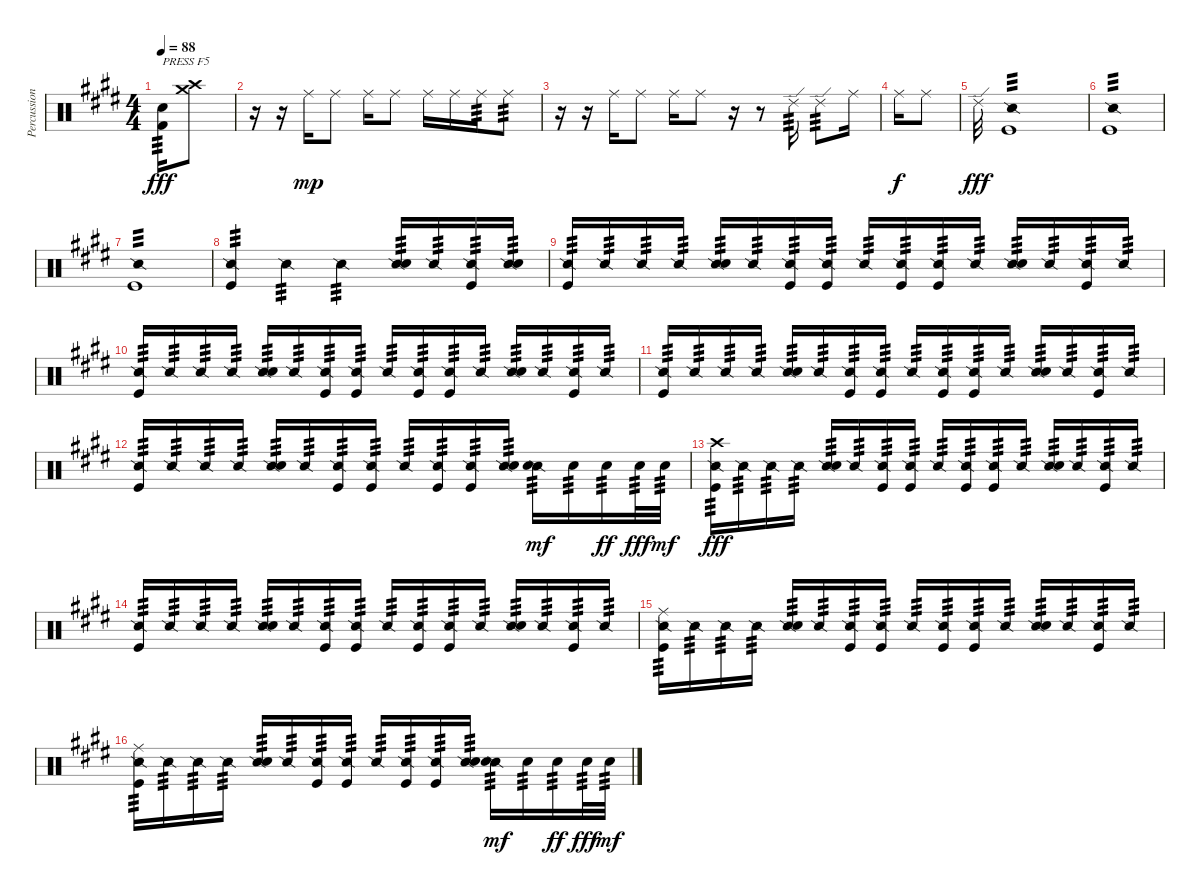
\track ("Percussion" "Percussion") {instrument percussion}
\staff {score}
\articulation defaults
\ts (4 4)
\tempo 88
\clef neutral
\ks e
("Snare (hit) 2" "Kick (hit) 2").16{txt "PRESS F5" tp 3 dy fff} ("Crash high (hit)" "Crash medium (hit)").8 |
\ks c#minor
r.16 r.16 "Ride (middle)".16{dy mp} "Ride (middle)".8 "Ride (middle)".16 "Ride (middle)".8 "Ride (middle)".16 "Ride (middle)".16 "Ride (middle)".16{tp 3} "Ride (middle)".8{tp 3} |
r.16 r.16 "Ride (middle)".16 "Ride (middle)".8 "Ride (middle)".16 "Ride (middle)".8 r.16 r.8 "Ride (edge) 2".16{tp 3} "Ride (edge) 2".8{tp 3} "Ride (middle)".16 |
\ks e "Ride (middle)".16{dy f} "Ride (middle)".8
|
\ks c#minor "Ride (edge) 2".32{dy fff}
("Snare (side stick) 2" "Kick (hit)").1{tp 3} |
("Snare (side stick) 2" "Kick (hit)").1{tp 3} |
\ks e
("Snare (side stick) 2" "Kick (hit)").1{tp 3} |
\ks c#minor
("Snare (side stick) 2" "Kick (hit)").4{tp 3} "Snare (side stick) 2".4{tp 3} "Snare (side stick) 2".4{tp 3} ("Snare (side stick) 2" "Electric Snare (hit)").16{tp 3} "Snare (side stick) 2".16{tp 3} ("Snare (side stick) 2" "Kick (hit)").16{tp 3} ("Snare (side stick) 2" "Electric Snare (hit)").16{tp 3} |
("Snare (side stick) 2" "Kick (hit)").16{tp 3} "Snare (side stick) 2".16{tp 3} "Snare (side stick) 2".16{tp 3} "Snare (side stick) 2".16{tp 3} ("Snare (side stick) 2" "Electric Snare (hit)").16{tp 3} "Snare (side stick) 2".16{tp 3} ("Snare (side stick) 2" "Kick (hit)").16{tp 3} ("Snare (side stick) 2" "Kick (hit)").16{tp 3} "Snare (side stick) 2".16{tp 3} ("Snare (side stick) 2" "Kick (hit)").16{tp 3} ("Snare (side stick) 2" "Kick (hit)").16{tp 3} "Snare (side stick) 2".16{tp 3} ("Snare (side stick) 2" "Electric Snare (hit)").16{tp 3} "Snare (side stick) 2".16{tp 3} ("Snare (side stick) 2" "Kick (hit)").16{tp 3} "Snare (side stick) 2".16{tp 3} |
\ks e
("Snare (side stick) 2" "Kick (hit)").16{tp 3} "Snare (side stick) 2".16{tp 3} "Snare (side stick) 2".16{tp 3} "Snare (side stick) 2".16{tp 3} ("Snare (side stick) 2" "Electric Snare (hit)").16{tp 3} "Snare (side stick) 2".16{tp 3} ("Snare (side stick) 2" "Kick (hit)").16{tp 3} ("Snare (side stick) 2" "Kick (hit)").16{tp 3} "Snare (side stick) 2".16{tp 3} ("Snare (side stick) 2" "Kick (hit)").16{tp 3} ("Snare (side stick) 2" "Kick (hit)").16{tp 3} "Snare (side stick) 2".16{tp 3} ("Snare (side stick) 2" "Electric Snare (hit)").16{tp 3} "Snare (side stick) 2".16{tp 3} ("Snare (side stick) 2" "Kick (hit)").16{tp 3} "Snare (side stick) 2".16{tp 3} |
\ks c#minor
("Snare (side stick) 2" "Kick (hit)").16{tp 3} "Snare (side stick) 2".16{tp 3} "Snare (side stick) 2".16{tp 3} "Snare (side stick) 2".16{tp 3} ("Snare (side stick) 2" "Electric Snare (hit)").16{tp 3} "Snare (side stick) 2".16{tp 3} ("Snare (side stick) 2" "Kick (hit)").16{tp 3} ("Snare (side stick) 2" "Kick (hit)").16{tp 3} "Snare (side stick) 2".16{tp 3} ("Snare (side stick) 2" "Kick (hit)").16{tp 3} ("Snare (side stick) 2" "Kick (hit)").16{tp 3} "Snare (side stick) 2".16{tp 3} ("Snare (side stick) 2" "Electric Snare (hit)").16{tp 3} "Snare (side stick) 2".16{tp 3} ("Snare (side stick) 2" "Kick (hit)").16{tp 3} "Snare (side stick) 2".16{tp 3} |
("Snare (side stick) 2" "Kick (hit)").16{tp 3} "Snare (side stick) 2".16{tp 3} "Snare (side stick) 2".16{tp 3} "Snare (side stick) 2".16{tp 3} ("Snare (side stick) 2" "Electric Snare (hit)").16{tp 3} "Snare (side stick) 2".16{tp 3} ("Snare (side stick) 2" "Kick (hit)").16{tp 3} ("Snare (side stick) 2" "Kick (hit)").16{tp 3} "Snare (side stick) 2".16{tp 3} ("Snare (side stick) 2" "Kick (hit)").16{tp 3} ("Snare (side stick) 2" "Kick (hit)").16{tp 3} ("Snare (side stick) 2" "Electric Snare (hit)").16{tp 3} ("Snare (side stick) 2" "Electric Snare (hit)").16{tp 3 dy mf} "Electric Snare (hit)".16{tp 3} "Electric Snare (hit)".16{tp 3 dy ff} "Electric Snare (hit)".32{tp 3 dy fff} "Electric Snare (hit)".32{tp 3 dy mf} |
\ks e
("Crash high (hit)" "Snare (side stick) 2" "Kick (hit)").16{tp 3 dy fff} "Snare (side stick) 2".16{tp 3} "Snare (side stick) 2".16{tp 3} "Snare (side stick) 2".16{tp 3} ("Snare (side stick) 2" "Electric Snare (hit)").16{tp 3} "Snare (side stick) 2".16{tp 3} ("Snare (side stick) 2" "Kick (hit)").16{tp 3} ("Snare (side stick) 2" "Kick (hit)").16{tp 3} "Snare (side stick) 2".16{tp 3} ("Snare (side stick) 2" "Kick (hit)").16{tp 3} ("Snare (side stick) 2" "Kick (hit)").16{tp 3} "Snare (side stick) 2".16{tp 3} ("Snare (side stick) 2" "Electric Snare (hit)").16{tp 3} "Snare (side stick) 2".16{tp 3} ("Snare (side stick) 2" "Kick (hit)").16{tp 3} "Snare (side stick) 2".16{tp 3} |
\ks c#minor
("Snare (side stick) 2" "Kick (hit)").16{tp 3} "Snare (side stick) 2".16{tp 3} "Snare (side stick) 2".16{tp 3} "Snare (side stick) 2".16{tp 3} ("Snare (side stick) 2" "Electric Snare (hit)").16{tp 3} "Snare (side stick) 2".16{tp 3} ("Snare (side stick) 2" "Kick (hit)").16{tp 3} ("Snare (side stick) 2" "Kick (hit)").16{tp 3} "Snare (side stick) 2".16{tp 3} ("Snare (side stick) 2" "Kick (hit)").16{tp 3} ("Snare (side stick) 2" "Kick (hit)").16{tp 3} "Snare (side stick) 2".16{tp 3} ("Snare (side stick) 2" "Electric Snare (hit)").16{tp 3} "Snare (side stick) 2".16{tp 3} ("Snare (side stick) 2" "Kick (hit)").16{tp 3} "Snare (side stick) 2".16{tp 3} |
("Ride (middle)" "Snare (side stick) 2" "Kick (hit)").16{tp 3} "Snare (side stick) 2".16{tp 3} "Snare (side stick) 2".16{tp 3} "Snare (side stick) 2".16{tp 3} ("Snare (side stick) 2" "Electric Snare (hit)").16{tp 3} "Snare (side stick) 2".16{tp 3} ("Snare (side stick) 2" "Kick (hit)").16{tp 3} ("Snare (side stick) 2" "Kick (hit)").16{tp 3} "Snare (side stick) 2".16{tp 3} ("Snare (side stick) 2" "Kick (hit)").16{tp 3} ("Snare (side stick) 2" "Kick (hit)").16{tp 3} "Snare (side stick) 2".16{tp 3} ("Snare (side stick) 2" "Electric Snare (hit)").16{tp 3} "Snare (side stick) 2".16{tp 3} ("Snare (side stick) 2" "Kick (hit)").16{tp 3} "Snare (side stick) 2".16{tp 3} |
\ks e
("Ride (middle)" "Snare (side stick) 2" "Kick (hit)").16{tp 3} "Snare (side stick) 2".16{tp 3} "Snare (side stick) 2".16{tp 3} "Snare (side stick) 2".16{tp 3} ("Snare (side stick) 2" "Electric Snare (hit)").16{tp 3} "Snare (side stick) 2".16{tp 3} ("Snare (side stick) 2" "Kick (hit)").16{tp 3} ("Snare (side stick) 2" "Kick (hit)").16{tp 3} "Snare (side stick) 2".16{tp 3} ("Snare (side stick) 2" "Kick (hit)").16{tp 3} ("Snare (side stick) 2" "Kick (hit)").16{tp 3} ("Snare (side stick) 2" "Electric Snare (hit)").16{tp 3} ("Snare (side stick) 2" "Electric Snare (hit)").16{tp 3 dy mf} "Electric Snare (hit)".16{tp 3} "Electric Snare (hit)".16{tp 3 dy ff} "Electric Snare (hit)".32{tp 3 dy fff} "Electric Snare (hit)".32{tp 3 dy mf}
